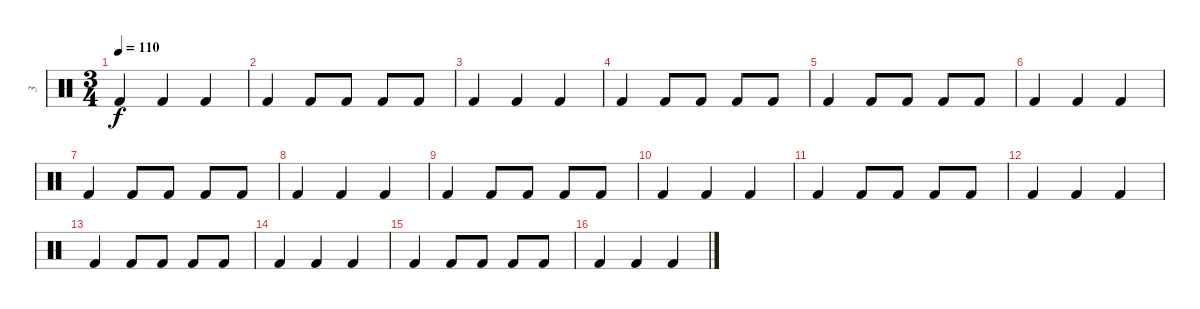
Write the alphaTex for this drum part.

\track ("3" "3") {instrument percussion}
\staff {score}
\articulation defaults
\ts (3 4)
\tempo 110
\clef neutral
\ks c "Kick (hit) 2".4{dy f} "Kick (hit) 2".4 "Kick (hit) 2".4
|
"Kick (hit) 2".4 "Kick (hit) 2".8 "Kick (hit) 2".8 "Kick (hit) 2".8 "Kick (hit) 2".8 |
"Kick (hit) 2".4 "Kick (hit) 2".4 "Kick (hit) 2".4 |
"Kick (hit) 2".4 "Kick (hit) 2".8 "Kick (hit) 2".8 "Kick (hit) 2".8 "Kick (hit) 2".8 |
"Kick (hit) 2".4 "Kick (hit) 2".8 "Kick (hit) 2".8 "Kick (hit) 2".8 "Kick (hit) 2".8 |
"Kick (hit) 2".4 "Kick (hit) 2".4 "Kick (hit) 2".4 |
"Kick (hit) 2".4 "Kick (hit) 2".8 "Kick (hit) 2".8 "Kick (hit) 2".8 "Kick (hit) 2".8 |
"Kick (hit) 2".4 "Kick (hit) 2".4 "Kick (hit) 2".4 |
"Kick (hit) 2".4 "Kick (hit) 2".8 "Kick (hit) 2".8 "Kick (hit) 2".8 "Kick (hit) 2".8 |
"Kick (hit) 2".4 "Kick (hit) 2".4 "Kick (hit) 2".4 |
"Kick (hit) 2".4 "Kick (hit) 2".8 "Kick (hit) 2".8 "Kick (hit) 2".8 "Kick (hit) 2".8 |
"Kick (hit) 2".4 "Kick (hit) 2".4 "Kick (hit) 2".4 |
"Kick (hit) 2".4 "Kick (hit) 2".8 "Kick (hit) 2".8 "Kick (hit) 2".8 "Kick (hit) 2".8 |
"Kick (hit) 2".4 "Kick (hit) 2".4 "Kick (hit) 2".4 |
"Kick (hit) 2".4 "Kick (hit) 2".8 "Kick (hit) 2".8 "Kick (hit) 2".8 "Kick (hit) 2".8 |
"Kick (hit) 2".4 "Kick (hit) 2".4 "Kick (hit) 2".4
